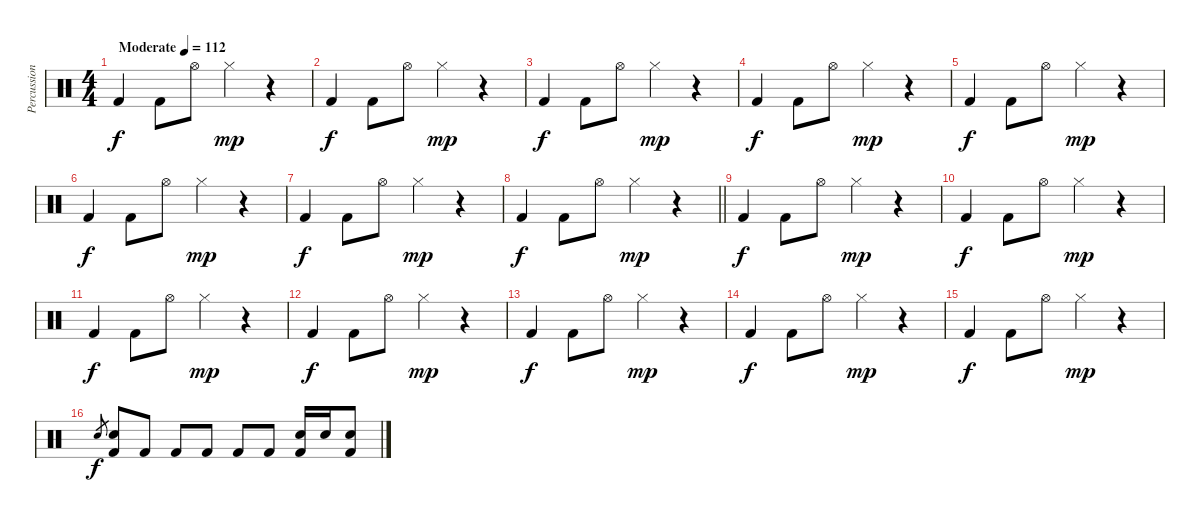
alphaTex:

\track ("Percussion" "Percussion") {instrument percussion}
\staff {score}
\articulation defaults
\ts (4 4)
\tempo (112 "Moderate")
\clef neutral
\ks c "Kick (hit) 2".4{dy f} "Kick (hit) 2".8 "Hi-Hat (open)".8 "Hi-Hat (closed)".4{dy mp}
r.4 |
"Kick (hit) 2".4{dy f} "Kick (hit) 2".8 "Hi-Hat (open)".8 "Hi-Hat (closed)".4{dy mp} r.4 |
"Kick (hit) 2".4{dy f} "Kick (hit) 2".8 "Hi-Hat (open)".8 "Hi-Hat (closed)".4{dy mp} r.4 |
"Kick (hit) 2".4{dy f} "Kick (hit) 2".8 "Hi-Hat (open)".8 "Hi-Hat (closed)".4{dy mp} r.4 |
"Kick (hit) 2".4{dy f} "Kick (hit) 2".8 "Hi-Hat (open)".8 "Hi-Hat (closed)".4{dy mp} r.4 |
"Kick (hit) 2".4{dy f} "Kick (hit) 2".8 "Hi-Hat (open)".8 "Hi-Hat (closed)".4{dy mp} r.4 |
"Kick (hit) 2".4{dy f} "Kick (hit) 2".8 "Hi-Hat (open)".8 "Hi-Hat (closed)".4{dy mp} r.4 |
\barLineRight lightlight "Kick (hit) 2".4{dy f} "Kick (hit) 2".8 "Hi-Hat (open)".8 "Hi-Hat (closed)".4{dy mp}
r.4 |
"Kick (hit) 2".4{dy f} "Kick (hit) 2".8 "Hi-Hat (open)".8 "Hi-Hat (closed)".4{dy mp} r.4 |
"Kick (hit) 2".4{dy f} "Kick (hit) 2".8 "Hi-Hat (open)".8 "Hi-Hat (closed)".4{dy mp} r.4 |
"Kick (hit) 2".4{dy f} "Kick (hit) 2".8 "Hi-Hat (open)".8 "Hi-Hat (closed)".4{dy mp} r.4 |
"Kick (hit) 2".4{dy f} "Kick (hit) 2".8 "Hi-Hat (open)".8 "Hi-Hat (closed)".4{dy mp} r.4 |
"Kick (hit) 2".4{dy f} "Kick (hit) 2".8 "Hi-Hat (open)".8 "Hi-Hat (closed)".4{dy mp} r.4 |
"Kick (hit) 2".4{dy f} "Kick (hit) 2".8 "Hi-Hat (open)".8 "Hi-Hat (closed)".4{dy mp} r.4 |
"Kick (hit) 2".4{dy f} "Kick (hit) 2".8 "Hi-Hat (open)".8 "Hi-Hat (closed)".4{dy mp} r.4 |
"Snare (hit) 2".8{gr dy f} ("Snare (hit) 2" "Kick (hit) 2").8 "Kick (hit) 2".8 "Kick (hit) 2".8 "Kick (hit) 2".8 "Kick (hit) 2".8 "Kick (hit) 2".8 ("Snare (hit) 2" "Kick (hit) 2").16 "Snare (hit) 2".16 ("Snare (hit) 2" "Kick (hit) 2").8
